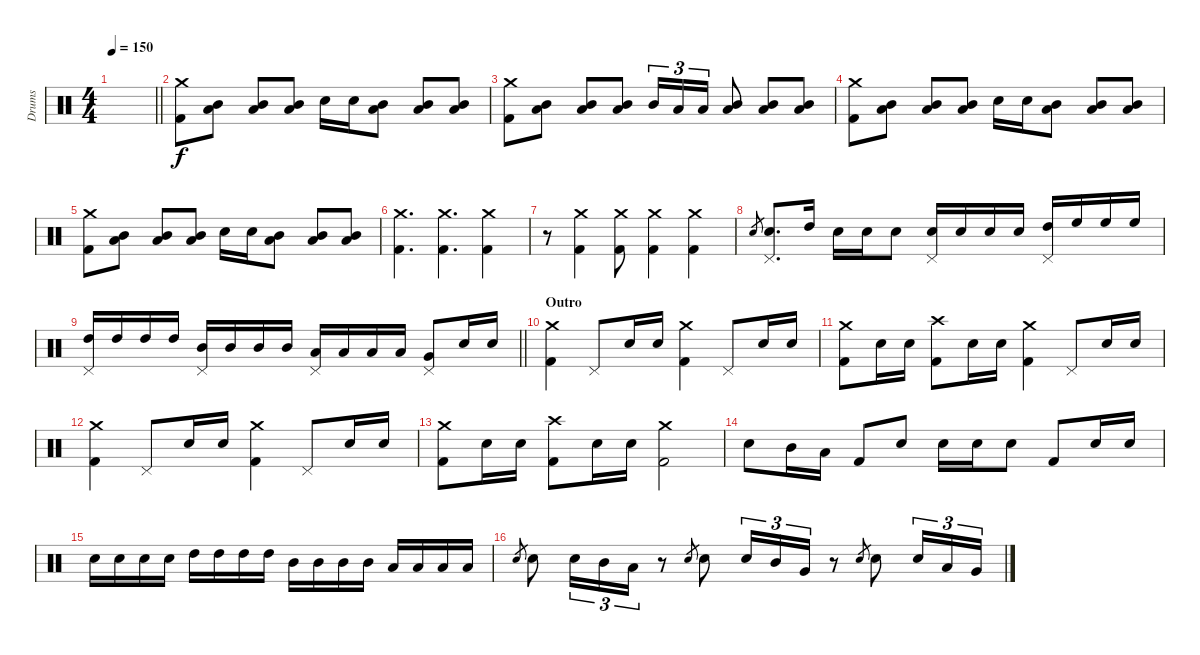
\track ("Drums" "Drums") {instrument percussion}
\staff {score}
\articulation defaults
\ts (4 4)
\tempo 150
\clef neutral
\barLineRight lightlight
\ks c
|
("Crash medium (hit)" "Kick (hit) 2").8 ("Mid Tom (hit)" "Low Tom (hit)").8 ("Mid Tom (hit)" "Low Tom (hit)").8 ("Mid Tom (hit)" "Low Tom (hit)").8 "Electric Snare (hit)".16 "Electric Snare (hit)".16 ("Low Tom (hit)" "Mid Tom (hit)").8 ("Low Tom (hit)" "Mid Tom (hit)").8 ("Low Tom (hit)" "Mid Tom (hit)").8 |
("Crash medium (hit)" "Kick (hit) 2").8 ("Mid Tom (hit)" "Low Tom (hit)").8 ("Mid Tom (hit)" "Low Tom (hit)").8 ("Mid Tom (hit)" "Low Tom (hit)").8 "Mid Tom (hit)".16{tu (3 2)} "Low Tom (hit)".16{tu (3 2)} "Low Tom (hit)".16{tu (3 2)} ("Low Tom (hit)" "Mid Tom (hit)").8 ("Low Tom (hit)" "Mid Tom (hit)").8 ("Low Tom (hit)" "Mid Tom (hit)").8 |
("Crash medium (hit)" "Kick (hit) 2").8 ("Mid Tom (hit)" "Low Tom (hit)").8 ("Mid Tom (hit)" "Low Tom (hit)").8 ("Mid Tom (hit)" "Low Tom (hit)").8 "Electric Snare (hit)".16 "Electric Snare (hit)".16 ("Low Tom (hit)" "Mid Tom (hit)").8 ("Low Tom (hit)" "Mid Tom (hit)").8 ("Low Tom (hit)" "Mid Tom (hit)").8 |
("Crash medium (hit)" "Kick (hit) 2").8 ("Mid Tom (hit)" "Low Tom (hit)").8 ("Mid Tom (hit)" "Low Tom (hit)").8 ("Mid Tom (hit)" "Low Tom (hit)").8 "Electric Snare (hit)".16 "Electric Snare (hit)".16 ("Low Tom (hit)" "Mid Tom (hit)").8 ("Low Tom (hit)" "Mid Tom (hit)").8 ("Low Tom (hit)" "Mid Tom (hit)").8 |
("Crash medium (hit)" "Kick (hit) 2").4{d} ("Crash medium (hit)" "Kick (hit) 2").4{d} ("Crash medium (hit)" "Kick (hit) 2").4 |
r.8 ("Crash medium (hit)" "Kick (hit) 2").4 ("Crash medium (hit)" "Kick (hit) 2").8 ("Crash medium (hit)" "Kick (hit) 2").4 ("Crash medium (hit)" "Kick (hit) 2").4 |
"Electric Snare (hit)".8{gr} ("Electric Snare (hit)" "Pedal Hi-Hat (hit)").8{d} "High Tom (hit)".16 "Electric Snare (hit)".16 "Electric Snare (hit)".16 "Electric Snare (hit)".8 ("Electric Snare (hit)" "Pedal Hi-Hat (hit)").16 "Electric Snare (hit)".16 "Electric Snare (hit)".16 "Electric Snare (hit)".16 ("High Tom (hit)" "Pedal Hi-Hat (hit)").16 "High Floor Tom (hit)".16 "High Floor Tom (hit)".16 "High Floor Tom (hit)".16 |
\barLineRight lightlight
("High Tom (hit)" "Pedal Hi-Hat (hit)").16 "High Tom (hit)".16 "High Tom (hit)".16 "High Tom (hit)".16 ("Mid Tom (hit)" "Pedal Hi-Hat (hit)").16 "Mid Tom (hit)".16 "Mid Tom (hit)".16 "Mid Tom (hit)".16 ("Low Tom (hit)" "Pedal Hi-Hat (hit)").16 "Low Tom (hit)".16 "Low Tom (hit)".16 "Low Tom (hit)".16 ("Very Low Tom (hit)" "Pedal Hi-Hat (hit)").8 "Electric Snare (hit)".16 "Electric Snare (hit)".16 |
\section ("" "Outro")
("Crash medium (hit)" "Kick (hit) 2").4 "Pedal Hi-Hat (hit)".8 "Electric Snare (hit)".16 "Electric Snare (hit)".16 ("Crash medium (hit)" "Kick (hit) 2").4 "Pedal Hi-Hat (hit)".8 "Electric Snare (hit)".16 "Electric Snare (hit)".16 |
("Crash medium (hit)" "Kick (hit) 2").8 "Electric Snare (hit)".16 "Electric Snare (hit)".16 ("Crash high (hit)" "Kick (hit) 2").8 "Electric Snare (hit)".16 "Electric Snare (hit)".16 ("Crash medium (hit)" "Kick (hit) 2").4 "Pedal Hi-Hat (hit)".8 "Electric Snare (hit)".16 "Electric Snare (hit)".16 |
("Crash medium (hit)" "Kick (hit) 2").4 "Pedal Hi-Hat (hit)".8 "Electric Snare (hit)".16 "Electric Snare (hit)".16 ("Crash medium (hit)" "Kick (hit) 2").4 "Pedal Hi-Hat (hit)".8 "Electric Snare (hit)".16 "Electric Snare (hit)".16 |
("Crash medium (hit)" "Kick (hit) 2").8 "Electric Snare (hit)".16 "Electric Snare (hit)".16 ("Crash high (hit)" "Kick (hit) 2").8 "Electric Snare (hit)".16 "Electric Snare (hit)".16 ("Crash medium (hit)" "Kick (hit) 2").2 |
"Electric Snare (hit)".8 "Mid Tom (hit)".16 "Low Tom (hit)".16 "Kick (hit) 2".8 "Electric Snare (hit)".8 "Electric Snare (hit)".16 "Electric Snare (hit)".16 "Electric Snare (hit)".8 "Kick (hit) 2".8 "Electric Snare (hit)".16 "Electric Snare (hit)".16 |
"Electric Snare (hit)".16 "Electric Snare (hit)".16 "Electric Snare (hit)".16 "Electric Snare (hit)".16 "High Tom (hit)".16 "High Tom (hit)".16 "High Tom (hit)".16 "High Tom (hit)".16 "Mid Tom (hit)".16 "Mid Tom (hit)".16 "Mid Tom (hit)".16 "Mid Tom (hit)".16 "Low Tom (hit)".16 "Low Tom (hit)".16 "Low Tom (hit)".16 "Low Tom (hit)".16 |
"Electric Snare (hit)".8{gr} "Electric Snare (hit)".8 "Electric Snare (hit)".16{tu (3 2)} "Mid Tom (hit)".16{tu (3 2)} "Low Tom (hit)".16{tu (3 2)} r.8 "Electric Snare (hit)".8{gr} "Electric Snare (hit)".8 "Electric Snare (hit)".16{tu (3 2)} "Mid Tom (hit)".16{tu (3 2)} "Very Low Tom (hit)".16{tu (3 2)} r.8 "Electric Snare (hit)".8{gr} "Electric Snare (hit)".8 "Electric Snare (hit)".16{tu (3 2)} "Low Tom (hit)".16{tu (3 2)} "Very Low Tom (hit)".16{tu (3 2)}
